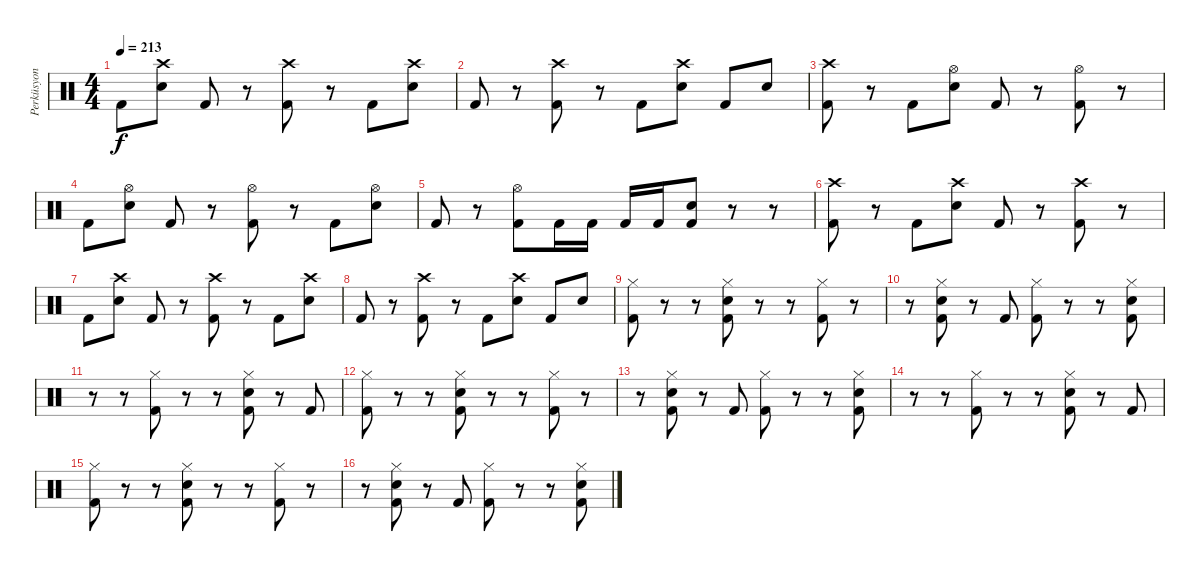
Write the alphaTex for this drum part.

\track ("Perküsyon" "Perküsyon") {instrument percussion}
\staff {score}
\articulation defaults
\ts (4 4)
\tempo 213
\clef neutral
\ks c "Kick (hit) 2".8{dy f}
("Crash high (hit)" "Electric Snare (hit)").8 "Kick (hit) 2".8 r.8 ("Crash high (hit)" "Kick (hit) 2").8 r.8 "Kick (hit) 2".8 ("Crash high (hit)" "Electric Snare (hit)").8 |
"Kick (hit) 2".8 r.8 ("Crash high (hit)" "Kick (hit) 2").8 r.8 "Kick (hit) 2".8 ("Crash high (hit)" "Electric Snare (hit)").8 "Kick (hit) 2".8 "Electric Snare (hit)".8 |
("Crash high (hit)" "Kick (hit) 2").8 r.8 "Kick (hit) 2".8 ("Hi-Hat (open)" "Electric Snare (hit)").8 "Kick (hit) 2".8 r.8 ("Hi-Hat (open)" "Kick (hit) 2").8 r.8 |
"Kick (hit) 2".8 ("Hi-Hat (open)" "Electric Snare (hit)").8 "Kick (hit) 2".8 r.8 ("Hi-Hat (open)" "Kick (hit) 2").8 r.8 "Kick (hit) 2".8 ("Hi-Hat (open)" "Electric Snare (hit)").8 |
"Kick (hit) 2".8 r.8 ("Hi-Hat (open)" "Kick (hit) 2").8 "Kick (hit) 2".16 "Kick (hit) 2".16 "Kick (hit) 2".16 "Kick (hit) 2".16 ("Electric Snare (hit)" "Kick (hit) 2").8 r.8 r.8 |
("Crash high (hit)" "Kick (hit) 2").8 r.8 "Kick (hit) 2".8 ("Crash high (hit)" "Electric Snare (hit)").8 "Kick (hit) 2".8 r.8 ("Crash high (hit)" "Kick (hit) 2").8 r.8 |
"Kick (hit) 2".8 ("Crash high (hit)" "Electric Snare (hit)").8 "Kick (hit) 2".8 r.8 ("Crash high (hit)" "Kick (hit) 2").8 r.8 "Kick (hit) 2".8 ("Crash high (hit)" "Electric Snare (hit)").8 |
"Kick (hit) 2".8 r.8 ("Crash high (hit)" "Kick (hit) 2").8 r.8 "Kick (hit) 2".8 ("Crash high (hit)" "Electric Snare (hit)").8 "Kick (hit) 2".8 "Electric Snare (hit)".8 |
("Hi-Hat (closed)" "Kick (hit) 2").8 r.8 r.8 ("Hi-Hat (closed)" "Electric Snare (hit)" "Kick (hit) 2").8 r.8 r.8 ("Hi-Hat (closed)" "Kick (hit) 2").8 r.8 |
r.8 ("Hi-Hat (closed)" "Electric Snare (hit)" "Kick (hit) 2").8 r.8 "Kick (hit) 2".8 ("Hi-Hat (closed)" "Kick (hit) 2").8 r.8 r.8 ("Hi-Hat (closed)" "Electric Snare (hit)" "Kick (hit) 2").8 |
r.8 r.8 ("Hi-Hat (closed)" "Kick (hit) 2").8 r.8 r.8 ("Hi-Hat (closed)" "Electric Snare (hit)" "Kick (hit) 2").8 r.8 "Kick (hit) 2".8 |
("Hi-Hat (closed)" "Kick (hit) 2").8 r.8 r.8 ("Hi-Hat (closed)" "Electric Snare (hit)" "Kick (hit) 2").8 r.8 r.8 ("Hi-Hat (closed)" "Kick (hit) 2").8 r.8 |
r.8 ("Hi-Hat (closed)" "Electric Snare (hit)" "Kick (hit) 2").8 r.8 "Kick (hit) 2".8 ("Hi-Hat (closed)" "Kick (hit) 2").8 r.8 r.8 ("Hi-Hat (closed)" "Electric Snare (hit)" "Kick (hit) 2").8 |
r.8 r.8 ("Hi-Hat (closed)" "Kick (hit) 2").8 r.8 r.8 ("Hi-Hat (closed)" "Electric Snare (hit)" "Kick (hit) 2").8 r.8 "Kick (hit) 2".8 |
("Hi-Hat (closed)" "Kick (hit) 2").8 r.8 r.8 ("Hi-Hat (closed)" "Electric Snare (hit)" "Kick (hit) 2").8 r.8 r.8 ("Hi-Hat (closed)" "Kick (hit) 2").8 r.8 |
r.8 ("Hi-Hat (closed)" "Electric Snare (hit)" "Kick (hit) 2").8 r.8 "Kick (hit) 2".8 ("Hi-Hat (closed)" "Kick (hit) 2").8 r.8 r.8 ("Hi-Hat (closed)" "Electric Snare (hit)" "Kick (hit) 2").8
